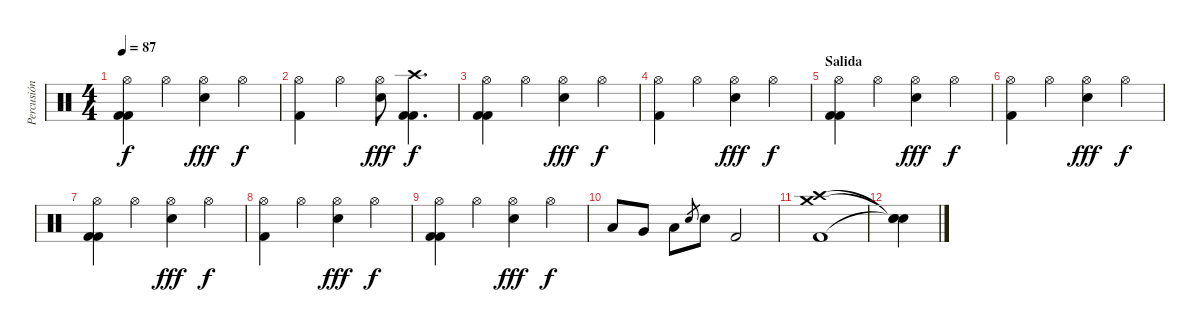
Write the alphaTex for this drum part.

\track ("Percusión" "Percusión") {instrument percussion}
\staff {score}
\articulation defaults
\ts (4 4)
\tempo 87
\clef neutral
\ks c
("Hi-Hat (open)" "Kick (hit) 2" "Kick (hit) 2").4{dy f} "Hi-Hat (open)".4 ("Hi-Hat (open)" "Snare (hit) 2").4{dy fff} "Hi-Hat (open)".4{dy f} |
("Hi-Hat (open)" "Kick (hit) 2").4 "Hi-Hat (open)".4 ("Hi-Hat (open)" "Snare (hit) 2").8{dy fff} ("Crash high (hit)" "Kick (hit) 2" "Kick (hit) 2").4{d dy f} |
("Hi-Hat (open)" "Kick (hit) 2" "Kick (hit) 2").4 "Hi-Hat (open)".4 ("Hi-Hat (open)" "Snare (hit) 2").4{dy fff} "Hi-Hat (open)".4{dy f} |
("Hi-Hat (open)" "Kick (hit) 2").4 "Hi-Hat (open)".4 ("Hi-Hat (open)" "Snare (hit) 2").4{dy fff} "Hi-Hat (open)".4{dy f} |
\section ("" "Salida")
("Hi-Hat (open)" "Kick (hit) 2" "Kick (hit) 2").4 "Hi-Hat (open)".4 ("Hi-Hat (open)" "Snare (hit) 2").4{dy fff} "Hi-Hat (open)".4{dy f} |
("Hi-Hat (open)" "Kick (hit) 2").4 "Hi-Hat (open)".4 ("Hi-Hat (open)" "Snare (hit) 2").4{dy fff} "Hi-Hat (open)".4{dy f} |
("Hi-Hat (open)" "Kick (hit) 2" "Kick (hit) 2").4 "Hi-Hat (open)".4 ("Hi-Hat (open)" "Snare (hit) 2").4{dy fff} "Hi-Hat (open)".4{dy f} |
("Hi-Hat (open)" "Kick (hit) 2").4 "Hi-Hat (open)".4 ("Hi-Hat (open)" "Snare (hit) 2").4{dy fff} "Hi-Hat (open)".4{dy f} |
("Hi-Hat (open)" "Kick (hit) 2" "Kick (hit) 2").4 "Hi-Hat (open)".4 ("Hi-Hat (open)" "Snare (hit) 2").4{dy fff} "Hi-Hat (open)".4{dy f} |
"Low Tom (hit)".8 "Very Low Tom (hit)".8 "Low Floor Tom (hit)".8 "Snare (hit) 2"{h}.8{gr} "Snare (hit) 2".8 "Kick (hit) 2".2 |
("Crash medium (hit)" "Crash high (hit)" "Kick (hit) 2").1 |
("Snare (hit)"{t} "Snare (hit)"{t} "Snare (hit)"{t}).4
